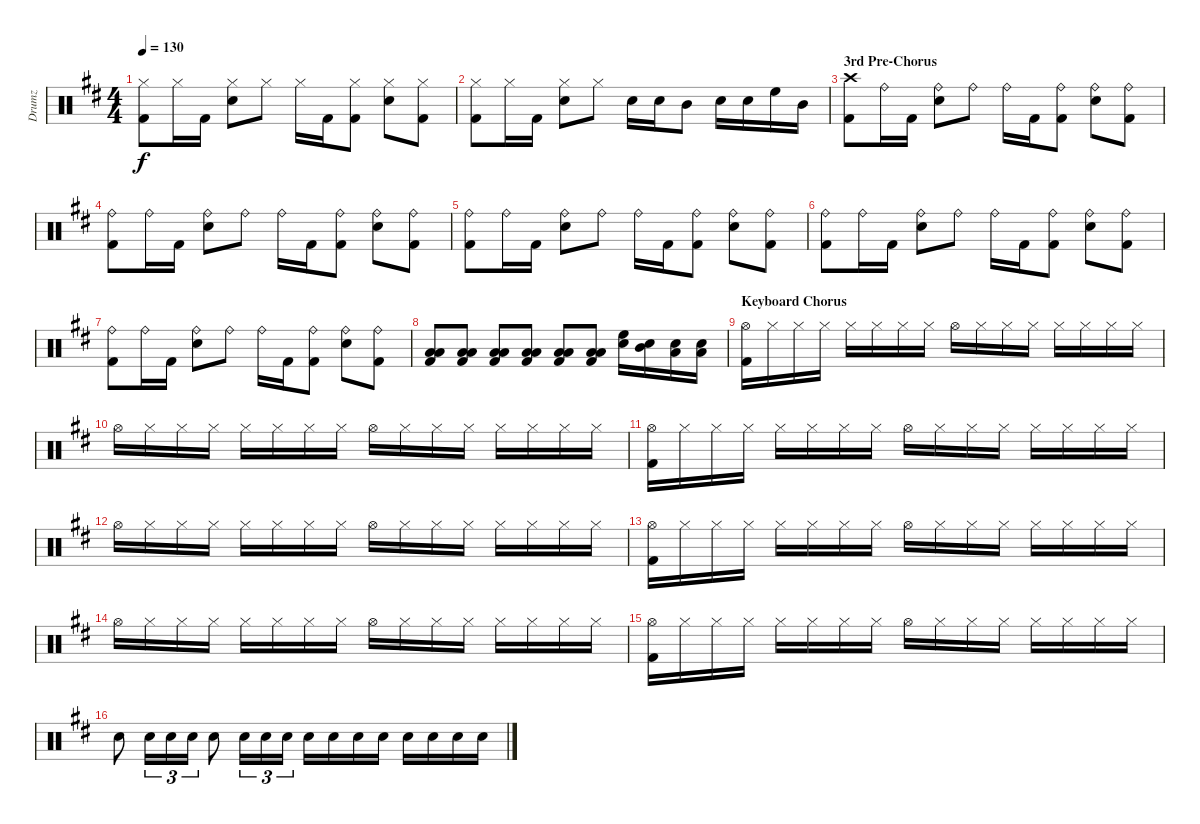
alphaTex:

\track ("Drumz" "Drumz") {instrument percussion}
\staff {score}
\articulation defaults
\ts (4 4)
\tempo 130
\clef neutral
\ks d
("Hi-Hat (closed)" "Kick (hit) 2").8{dy f} "Hi-Hat (closed)".16 "Kick (hit) 2".16 ("Hi-Hat (closed)" "Snare (hit) 2").8 "Hi-Hat (closed)".8 "Hi-Hat (closed)".16 "Kick (hit) 2".16 ("Hi-Hat (closed)" "Kick (hit) 2").8 ("Hi-Hat (closed)" "Snare (hit) 2").8 ("Hi-Hat (closed)" "Kick (hit) 2").8 |
("Hi-Hat (closed)" "Kick (hit) 2").8 "Hi-Hat (closed)".16 "Kick (hit) 2".16 ("Hi-Hat (closed)" "Snare (hit) 2").8 "Hi-Hat (closed)".8 "Snare (hit) 2".16 "Snare (hit) 2".16 "Mid Tom (hit)".8 "Snare (hit) 2".16 "Snare (hit) 2".16 "High Floor Tom (hit)".16 "Mid Tom (hit)".16 |
\section ("" "3rd Pre-Chorus")
("Crash high (hit)" "Kick (hit) 2").8 "Ride (bell)".16 "Kick (hit) 2".16 ("Ride (bell)" "Snare (hit) 2").8 "Ride (bell)".8 "Ride (bell)".16 "Kick (hit) 2".16 ("Ride (bell)" "Kick (hit) 2").8 ("Ride (bell)" "Snare (hit) 2").8 ("Ride (bell)" "Kick (hit) 2").8 |
("Ride (bell)" "Kick (hit) 2").8 "Ride (bell)".16 "Kick (hit) 2".16 ("Ride (bell)" "Snare (hit) 2").8 "Ride (bell)".8 "Ride (bell)".16 "Kick (hit) 2".16 ("Ride (bell)" "Kick (hit) 2").8 ("Ride (bell)" "Snare (hit) 2").8 ("Ride (bell)" "Kick (hit) 2").8 |
("Ride (bell)" "Kick (hit) 2").8 "Ride (bell)".16 "Kick (hit) 2".16 ("Ride (bell)" "Snare (hit) 2").8 "Ride (bell)".8 "Ride (bell)".16 "Kick (hit) 2".16 ("Ride (bell)" "Kick (hit) 2").8 ("Ride (bell)" "Snare (hit) 2").8 ("Ride (bell)" "Kick (hit) 2").8 |
("Ride (bell)" "Kick (hit) 2").8 "Ride (bell)".16 "Kick (hit) 2".16 ("Ride (bell)" "Snare (hit) 2").8 "Ride (bell)".8 "Ride (bell)".16 "Kick (hit) 2".16 ("Ride (bell)" "Kick (hit) 2").8 ("Ride (bell)" "Snare (hit) 2").8 ("Ride (bell)" "Kick (hit) 2").8 |
("Ride (bell)" "Kick (hit) 2").8 "Ride (bell)".16 "Kick (hit) 2".16 ("Ride (bell)" "Snare (hit) 2").8 "Ride (bell)".8 "Ride (bell)".16 "Kick (hit) 2".16 ("Ride (bell)" "Kick (hit) 2").8 ("Ride (bell)" "Snare (hit) 2").8 ("Ride (bell)" "Kick (hit) 2").8 |
("Low Tom (hit)" "Low Floor Tom (hit)" "Kick (hit) 2").8 ("Low Tom (hit)" "Low Floor Tom (hit)" "Kick (hit) 2").8 ("Low Tom (hit)" "Low Floor Tom (hit)" "Kick (hit) 2").8 ("Low Tom (hit)" "Low Floor Tom (hit)" "Kick (hit) 2").8 ("Low Tom (hit)" "Low Floor Tom (hit)" "Kick (hit) 2").8 ("Low Tom (hit)" "Low Floor Tom (hit)" "Kick (hit) 2").8 ("Snare (hit) 2" "High Floor Tom (hit)").16 ("Snare (hit) 2" "Mid Tom (hit)").16 ("Snare (hit) 2" "Low Tom (hit)").16 ("Snare (hit) 2" "Low Floor Tom (hit)").16 |
\section ("" "Keyboard Chorus")
("Hi-Hat (open)" "Kick (hit) 2").16 "Hi-Hat (closed)".16 "Hi-Hat (closed)".16 "Hi-Hat (closed)".16 "Hi-Hat (closed)".16 "Hi-Hat (closed)".16 "Hi-Hat (closed)".16 "Hi-Hat (closed)".16 "Hi-Hat (open)".16 "Hi-Hat (closed)".16 "Hi-Hat (closed)".16 "Hi-Hat (closed)".16 "Hi-Hat (closed)".16 "Hi-Hat (closed)".16 "Hi-Hat (closed)".16 "Hi-Hat (closed)".16 |
"Hi-Hat (open)".16 "Hi-Hat (closed)".16 "Hi-Hat (closed)".16 "Hi-Hat (closed)".16 "Hi-Hat (closed)".16 "Hi-Hat (closed)".16 "Hi-Hat (closed)".16 "Hi-Hat (closed)".16 "Hi-Hat (open)".16 "Hi-Hat (closed)".16 "Hi-Hat (closed)".16 "Hi-Hat (closed)".16 "Hi-Hat (closed)".16 "Hi-Hat (closed)".16 "Hi-Hat (closed)".16 "Hi-Hat (closed)".16 |
("Hi-Hat (open)" "Kick (hit) 2").16 "Hi-Hat (closed)".16 "Hi-Hat (closed)".16 "Hi-Hat (closed)".16 "Hi-Hat (closed)".16 "Hi-Hat (closed)".16 "Hi-Hat (closed)".16 "Hi-Hat (closed)".16 "Hi-Hat (open)".16 "Hi-Hat (closed)".16 "Hi-Hat (closed)".16 "Hi-Hat (closed)".16 "Hi-Hat (closed)".16 "Hi-Hat (closed)".16 "Hi-Hat (closed)".16 "Hi-Hat (closed)".16 |
"Hi-Hat (open)".16 "Hi-Hat (closed)".16 "Hi-Hat (closed)".16 "Hi-Hat (closed)".16 "Hi-Hat (closed)".16 "Hi-Hat (closed)".16 "Hi-Hat (closed)".16 "Hi-Hat (closed)".16 "Hi-Hat (open)".16 "Hi-Hat (closed)".16 "Hi-Hat (closed)".16 "Hi-Hat (closed)".16 "Hi-Hat (closed)".16 "Hi-Hat (closed)".16 "Hi-Hat (closed)".16 "Hi-Hat (closed)".16 |
("Hi-Hat (open)" "Kick (hit) 2").16 "Hi-Hat (closed)".16 "Hi-Hat (closed)".16 "Hi-Hat (closed)".16 "Hi-Hat (closed)".16 "Hi-Hat (closed)".16 "Hi-Hat (closed)".16 "Hi-Hat (closed)".16 "Hi-Hat (open)".16 "Hi-Hat (closed)".16 "Hi-Hat (closed)".16 "Hi-Hat (closed)".16 "Hi-Hat (closed)".16 "Hi-Hat (closed)".16 "Hi-Hat (closed)".16 "Hi-Hat (closed)".16 |
"Hi-Hat (open)".16 "Hi-Hat (closed)".16 "Hi-Hat (closed)".16 "Hi-Hat (closed)".16 "Hi-Hat (closed)".16 "Hi-Hat (closed)".16 "Hi-Hat (closed)".16 "Hi-Hat (closed)".16 "Hi-Hat (open)".16 "Hi-Hat (closed)".16 "Hi-Hat (closed)".16 "Hi-Hat (closed)".16 "Hi-Hat (closed)".16 "Hi-Hat (closed)".16 "Hi-Hat (closed)".16 "Hi-Hat (closed)".16 |
("Hi-Hat (open)" "Kick (hit) 2").16 "Hi-Hat (closed)".16 "Hi-Hat (closed)".16 "Hi-Hat (closed)".16 "Hi-Hat (closed)".16 "Hi-Hat (closed)".16 "Hi-Hat (closed)".16 "Hi-Hat (closed)".16 "Hi-Hat (open)".16 "Hi-Hat (closed)".16 "Hi-Hat (closed)".16 "Hi-Hat (closed)".16 "Hi-Hat (closed)".16 "Hi-Hat (closed)".16 "Hi-Hat (closed)".16 "Hi-Hat (closed)".16 |
"Snare (hit) 2".8 "Snare (hit) 2".16{tu (3 2)} "Snare (hit) 2".16{tu (3 2)} "Snare (hit) 2".16{tu (3 2)} "Snare (hit) 2".8 "Snare (hit) 2".16{tu (3 2)} "Snare (hit) 2".16{tu (3 2)} "Snare (hit) 2".16{tu (3 2)} "Snare (hit) 2".16 "Snare (hit) 2".16 "Snare (hit) 2".16 "Snare (hit) 2".16 "Snare (hit) 2".16 "Snare (hit) 2".16 "Snare (hit) 2".16 "Snare (hit) 2".16
